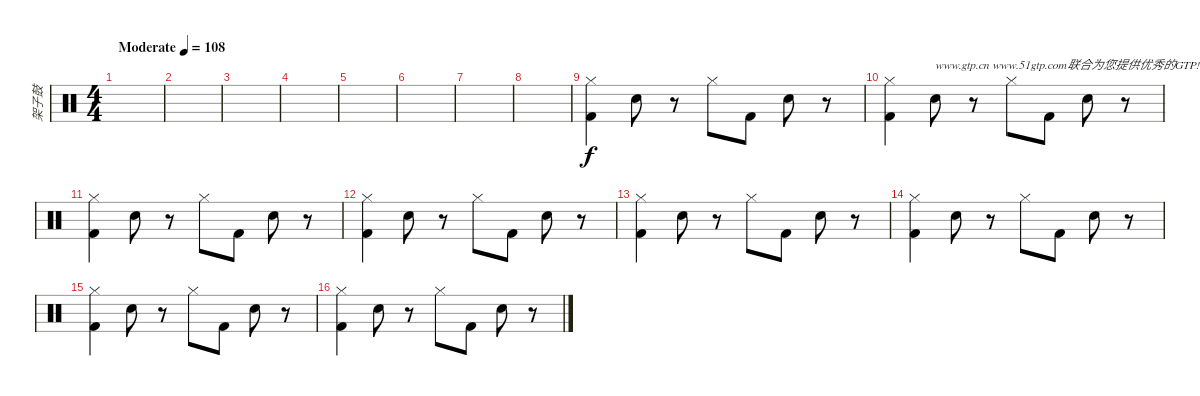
\track ("架子鼓" "架子鼓") {instrument percussion}
\staff {score}
\articulation defaults
\ts (4 4)
\tempo (108 "Moderate")
\clef neutral
\ks c
|
|
|
|
|
|
|
|
("Hi-Hat (closed)" "Kick (hit) 2").4 "Snare (hit) 2".8 r.8 "Hi-Hat (closed)".8 "Kick (hit) 2".8 "Snare (hit) 2".8 r.8 |
("Hi-Hat (closed)" "Kick (hit) 2").4 "Snare (hit) 2".8{txt "www.gtp.cn www.51gtp.com联合为您提供优秀的GTP!"} r.8 "Hi-Hat (closed)".8 "Kick (hit) 2".8 "Snare (hit) 2".8 r.8 |
("Hi-Hat (closed)" "Kick (hit) 2").4 "Snare (hit) 2".8 r.8 "Hi-Hat (closed)".8 "Kick (hit) 2".8 "Snare (hit) 2".8 r.8 |
("Hi-Hat (closed)" "Kick (hit) 2").4 "Snare (hit) 2".8 r.8 "Hi-Hat (closed)".8 "Kick (hit) 2".8 "Snare (hit) 2".8 r.8 |
("Hi-Hat (closed)" "Kick (hit) 2").4 "Snare (hit) 2".8 r.8 "Hi-Hat (closed)".8 "Kick (hit) 2".8 "Snare (hit) 2".8 r.8 |
("Hi-Hat (closed)" "Kick (hit) 2").4 "Snare (hit) 2".8 r.8 "Hi-Hat (closed)".8 "Kick (hit) 2".8 "Snare (hit) 2".8 r.8 |
("Hi-Hat (closed)" "Kick (hit) 2").4 "Snare (hit) 2".8 r.8 "Hi-Hat (closed)".8 "Kick (hit) 2".8 "Snare (hit) 2".8 r.8 |
("Hi-Hat (closed)" "Kick (hit) 2").4 "Snare (hit) 2".8 r.8 "Hi-Hat (closed)".8 "Kick (hit) 2".8 "Snare (hit) 2".8 r.8
